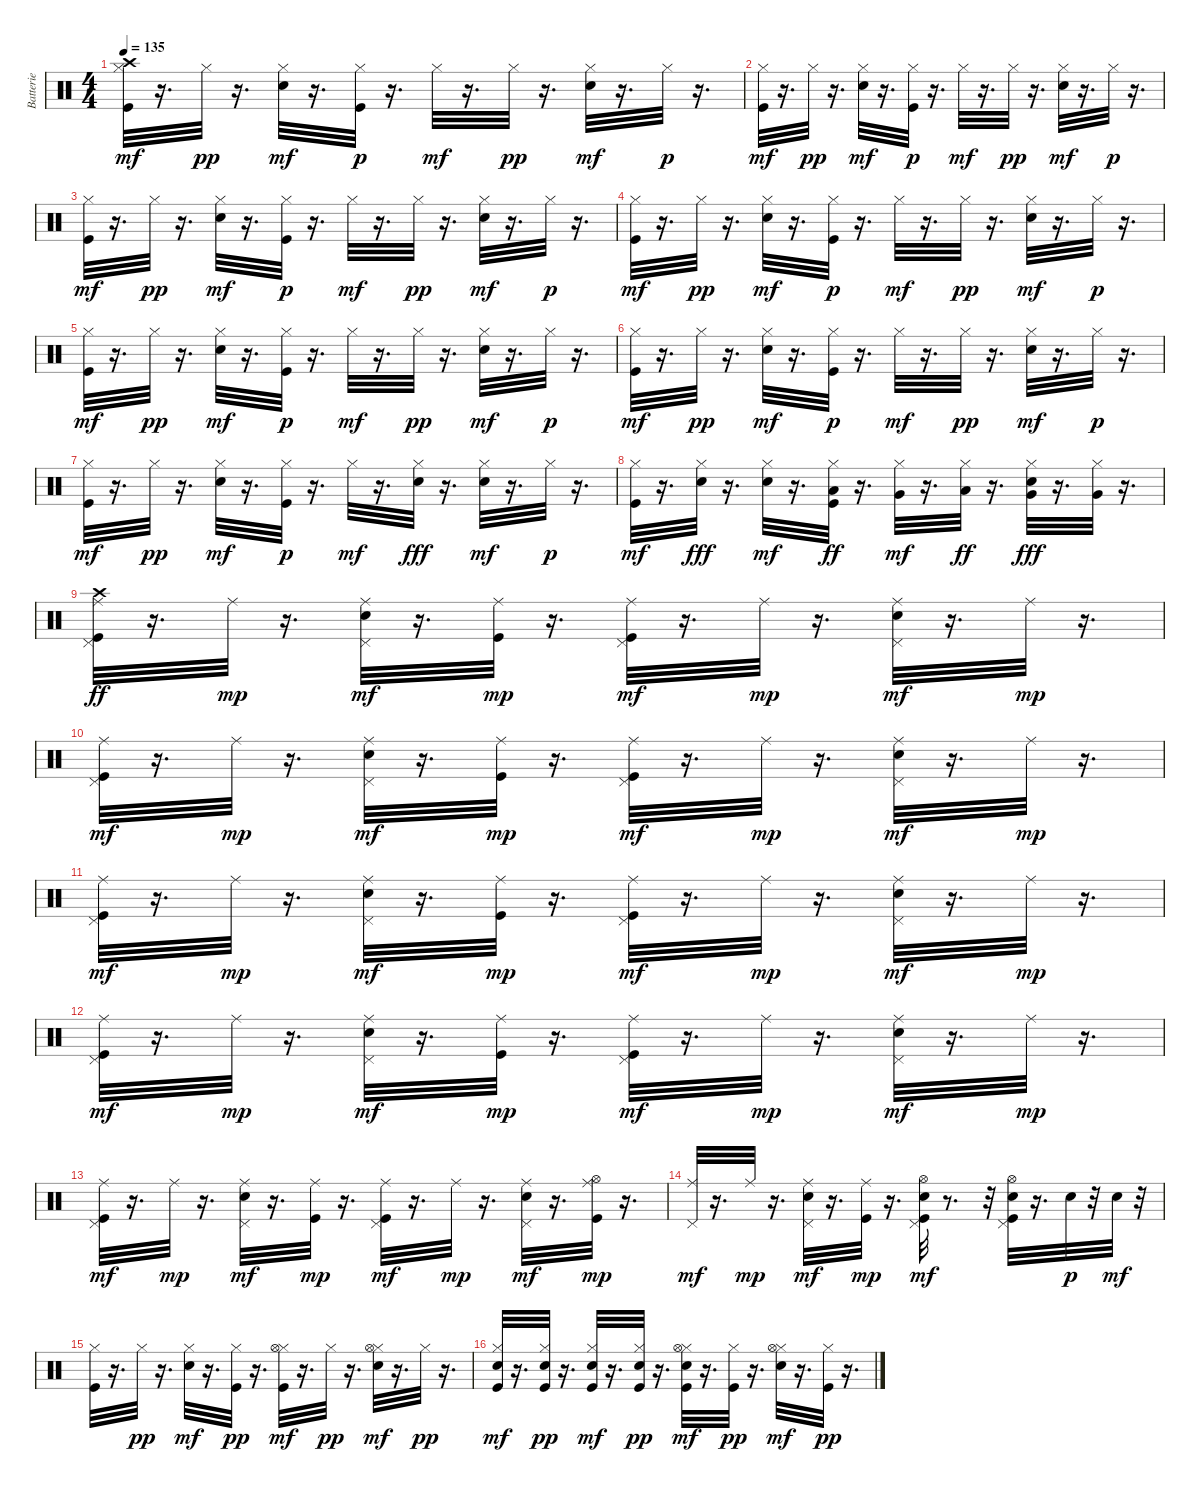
\track ("Batterie" "Batterie") {instrument percussion}
\staff {score}
\articulation defaults
\ts (4 4)
\tempo 135
\clef neutral
\ks c
("Kick (hit)" "Hi-Hat (closed)" "Crash high (hit)").32{dy mf} r.16{d} "Hi-Hat (closed)".32{dy pp} r.16{d} ("Electric Snare (hit)" "Hi-Hat (closed)").32{dy mf} r.16{d} ("Kick (hit)" "Hi-Hat (closed)").32{dy p} r.16{d} "Hi-Hat (closed)".32{dy mf} r.16{d} "Hi-Hat (closed)".32{dy pp} r.16{d} ("Electric Snare (hit)" "Hi-Hat (closed)").32{dy mf} r.16{d} "Hi-Hat (closed)".32{dy p} r.16{d} |
("Kick (hit)" "Hi-Hat (closed)").32{dy mf} r.16{d} "Hi-Hat (closed)".32{dy pp} r.16{d} ("Electric Snare (hit)" "Hi-Hat (closed)").32{dy mf} r.16{d} ("Kick (hit)" "Hi-Hat (closed)").32{dy p} r.16{d} "Hi-Hat (closed)".32{dy mf} r.16{d} "Hi-Hat (closed)".32{dy pp} r.16{d} ("Electric Snare (hit)" "Hi-Hat (closed)").32{dy mf} r.16{d} "Hi-Hat (closed)".32{dy p} r.16{d} |
("Kick (hit)" "Hi-Hat (closed)").32{dy mf} r.16{d} "Hi-Hat (closed)".32{dy pp} r.16{d} ("Electric Snare (hit)" "Hi-Hat (closed)").32{dy mf} r.16{d} ("Kick (hit)" "Hi-Hat (closed)").32{dy p} r.16{d} "Hi-Hat (closed)".32{dy mf} r.16{d} "Hi-Hat (closed)".32{dy pp} r.16{d} ("Electric Snare (hit)" "Hi-Hat (closed)").32{dy mf} r.16{d} "Hi-Hat (closed)".32{dy p} r.16{d} |
("Kick (hit)" "Hi-Hat (closed)").32{dy mf} r.16{d} "Hi-Hat (closed)".32{dy pp} r.16{d} ("Electric Snare (hit)" "Hi-Hat (closed)").32{dy mf} r.16{d} ("Kick (hit)" "Hi-Hat (closed)").32{dy p} r.16{d} "Hi-Hat (closed)".32{dy mf} r.16{d} "Hi-Hat (closed)".32{dy pp} r.16{d} ("Electric Snare (hit)" "Hi-Hat (closed)").32{dy mf} r.16{d} "Hi-Hat (closed)".32{dy p} r.16{d} |
("Kick (hit)" "Hi-Hat (closed)").32{dy mf} r.16{d} "Hi-Hat (closed)".32{dy pp} r.16{d} ("Electric Snare (hit)" "Hi-Hat (closed)").32{dy mf} r.16{d} ("Kick (hit)" "Hi-Hat (closed)").32{dy p} r.16{d} "Hi-Hat (closed)".32{dy mf} r.16{d} "Hi-Hat (closed)".32{dy pp} r.16{d} ("Electric Snare (hit)" "Hi-Hat (closed)").32{dy mf} r.16{d} "Hi-Hat (closed)".32{dy p} r.16{d} |
("Kick (hit)" "Hi-Hat (closed)").32{dy mf} r.16{d} "Hi-Hat (closed)".32{dy pp} r.16{d} ("Electric Snare (hit)" "Hi-Hat (closed)").32{dy mf} r.16{d} ("Kick (hit)" "Hi-Hat (closed)").32{dy p} r.16{d} "Hi-Hat (closed)".32{dy mf} r.16{d} "Hi-Hat (closed)".32{dy pp} r.16{d} ("Electric Snare (hit)" "Hi-Hat (closed)").32{dy mf} r.16{d} "Hi-Hat (closed)".32{dy p} r.16{d} |
("Kick (hit)" "Hi-Hat (closed)").32{dy mf} r.16{d} "Hi-Hat (closed)".32{dy pp} r.16{d} ("Electric Snare (hit)" "Hi-Hat (closed)").32{dy mf} r.16{d} ("Kick (hit)" "Hi-Hat (closed)").32{dy p} r.16{d} "Hi-Hat (closed)".32{dy mf} r.16{d} ("Hi-Hat (closed)" "Electric Snare (hit)").32{dy fff} r.16{d} ("Electric Snare (hit)" "Hi-Hat (closed)").32{dy mf} r.16{d} "Hi-Hat (closed)".32{dy p} r.16{d} |
("Kick (hit)" "Hi-Hat (closed)").32{dy mf} r.16{d} ("Hi-Hat (closed)" "Electric Snare (hit)").32{dy fff} r.16{d} ("Electric Snare (hit)" "Hi-Hat (closed)").32{dy mf} r.16{d} ("Kick (hit)" "Hi-Hat (closed)" "Low Tom (hit)").32{dy ff} r.16{d} ("Hi-Hat (closed)" "Very Low Tom (hit)").32{dy mf} r.16{d} ("Hi-Hat (closed)" "Low Tom (hit)").32{dy ff} r.16{d} ("Electric Snare (hit)" "Hi-Hat (closed)" "Very Low Tom (hit)").32{dy fff} r.16{d} ("Hi-Hat (closed)" "Very Low Tom (hit)").32 r.16{d} |
("Kick (hit)" "Pedal Hi-Hat (hit)" "Ride (middle)" "Crash high (hit)").32{dy ff} r.16{d} "Ride (middle)".32{dy mp} r.16{d} ("Electric Snare (hit)" "Pedal Hi-Hat (hit)" "Ride (middle)").32{dy mf} r.16{d} ("Kick (hit)" "Ride (middle)").32{dy mp} r.16{d} ("Kick (hit)" "Pedal Hi-Hat (hit)" "Ride (middle)").32{dy mf} r.16{d} "Ride (middle)".32{dy mp} r.16{d} ("Electric Snare (hit)" "Pedal Hi-Hat (hit)" "Ride (middle)").32{dy mf} r.16{d} "Ride (middle)".32{dy mp} r.16{d} |
("Kick (hit)" "Pedal Hi-Hat (hit)" "Ride (middle)").32{dy mf} r.16{d} "Ride (middle)".32{dy mp} r.16{d} ("Electric Snare (hit)" "Pedal Hi-Hat (hit)" "Ride (middle)").32{dy mf} r.16{d} ("Kick (hit)" "Ride (middle)").32{dy mp} r.16{d} ("Kick (hit)" "Pedal Hi-Hat (hit)" "Ride (middle)").32{dy mf} r.16{d} "Ride (middle)".32{dy mp} r.16{d} ("Electric Snare (hit)" "Pedal Hi-Hat (hit)" "Ride (middle)").32{dy mf} r.16{d} "Ride (middle)".32{dy mp} r.16{d} |
("Kick (hit)" "Pedal Hi-Hat (hit)" "Ride (middle)").32{dy mf} r.16{d} "Ride (middle)".32{dy mp} r.16{d} ("Electric Snare (hit)" "Pedal Hi-Hat (hit)" "Ride (middle)").32{dy mf} r.16{d} ("Kick (hit)" "Ride (middle)").32{dy mp} r.16{d} ("Kick (hit)" "Pedal Hi-Hat (hit)" "Ride (middle)").32{dy mf} r.16{d} "Ride (middle)".32{dy mp} r.16{d} ("Electric Snare (hit)" "Pedal Hi-Hat (hit)" "Ride (middle)").32{dy mf} r.16{d} "Ride (middle)".32{dy mp} r.16{d} |
("Kick (hit)" "Pedal Hi-Hat (hit)" "Ride (middle)").32{dy mf} r.16{d} "Ride (middle)".32{dy mp} r.16{d} ("Electric Snare (hit)" "Pedal Hi-Hat (hit)" "Ride (middle)").32{dy mf} r.16{d} ("Kick (hit)" "Ride (middle)").32{dy mp} r.16{d} ("Kick (hit)" "Pedal Hi-Hat (hit)" "Ride (middle)").32{dy mf} r.16{d} "Ride (middle)".32{dy mp} r.16{d} ("Electric Snare (hit)" "Pedal Hi-Hat (hit)" "Ride (middle)").32{dy mf} r.16{d} "Ride (middle)".32{dy mp} r.16{d} |
("Kick (hit)" "Pedal Hi-Hat (hit)" "Ride (middle)").32{dy mf} r.16{d} "Ride (middle)".32{dy mp} r.16{d} ("Electric Snare (hit)" "Pedal Hi-Hat (hit)" "Ride (middle)").32{dy mf} r.16{d} ("Kick (hit)" "Ride (middle)").32{dy mp} r.16{d} ("Kick (hit)" "Pedal Hi-Hat (hit)" "Ride (middle)").32{dy mf} r.16{d} "Ride (middle)".32{dy mp} r.16{d} ("Electric Snare (hit)" "Pedal Hi-Hat (hit)" "Ride (middle)").32{dy mf} r.16{d} ("Kick (hit)" "Hi-Hat (open)" "Ride (middle)").32{dy mp} r.16{d} |
("Pedal Hi-Hat (hit)" "Ride (middle)").32{dy mf} r.16{d} "Ride (middle)".32{dy mp} r.16{d} ("Electric Snare (hit)" "Pedal Hi-Hat (hit)" "Ride (middle)").32{dy mf} r.16{d} ("Kick (hit)" "Ride (middle)").32{dy mp} r.16{d} ("Kick (hit)" "Electric Snare (hit)" "Pedal Hi-Hat (hit)" "Hi-Hat (open)").32{dy mf} r.8{d} r.32 ("Kick (hit)" "Electric Snare (hit)" "Pedal Hi-Hat (hit)" "Hi-Hat (open)").32 r.16{d} "Electric Snare (hit)".32{dy p} r.32 "Electric Snare (hit)".32{dy mf} r.32 |
("Kick (hit)" "Hi-Hat (closed)").32 r.16{d} "Hi-Hat (closed)".32{dy pp} r.16{d} ("Electric Snare (hit)" "Hi-Hat (closed)").32{dy mf} r.16{d} ("Kick (hit)" "Hi-Hat (closed)").32{dy pp} r.16{d} ("Kick (hit)" "Hi-Hat (closed)" "Hi-Hat (open)").32{dy mf} r.16{d} "Hi-Hat (closed)".32{dy pp} r.16{d} ("Electric Snare (hit)" "Hi-Hat (closed)" "Hi-Hat (open)").32{dy mf} r.16{d} "Hi-Hat (closed)".32{dy pp} r.16{d} |
("Kick (hit)" "Electric Snare (hit)" "Hi-Hat (closed)").32{dy mf} r.16{d} ("Kick (hit)" "Electric Snare (hit)" "Hi-Hat (closed)").32{dy pp} r.16{d} ("Kick (hit)" "Electric Snare (hit)" "Hi-Hat (closed)").32{dy mf} r.16{d} ("Kick (hit)" "Electric Snare (hit)" "Hi-Hat (closed)").32{dy pp} r.16{d} ("Kick (hit)" "Electric Snare (hit)" "Hi-Hat (closed)" "Hi-Hat (open)").32{dy mf} r.16{d} ("Kick (hit)" "Hi-Hat (closed)").32{dy pp} r.16{d} ("Electric Snare (hit)" "Hi-Hat (closed)" "Hi-Hat (open)").32{dy mf} r.16{d} ("Kick (hit)" "Hi-Hat (closed)").32{dy pp} r.16{d}
